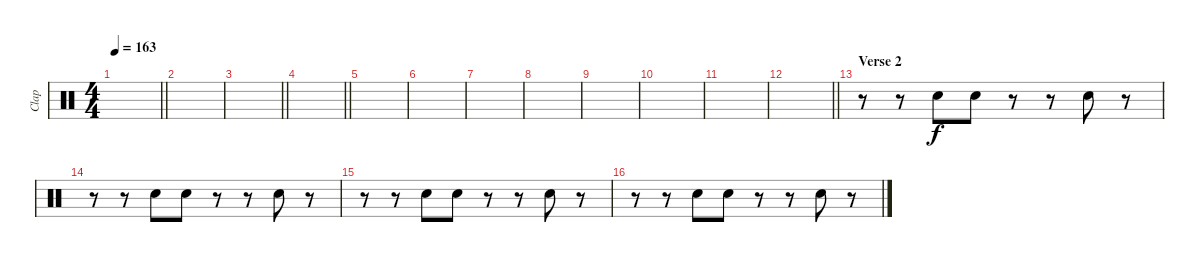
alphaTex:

\track ("Clap" "Clap") {instrument percussion}
\staff {score}
\articulation defaults
\ts (4 4)
\tempo 163
\clef neutral
\barLineRight lightlight
\ks c
|
|
\barLineRight lightlight
|
\barLineRight lightlight
|
\section ("" "")
|
|
|
|
|
|
|
\barLineRight lightlight
|
\section ("" "Verse 2")
r.8 r.8 "Hand Clap (hit)".8 "Hand Clap (hit)".8 r.8 r.8 "Hand Clap (hit)".8 r.8 |
r.8 r.8 "Hand Clap (hit)".8 "Hand Clap (hit)".8 r.8 r.8 "Hand Clap (hit)".8 r.8 |
r.8 r.8 "Hand Clap (hit)".8 "Hand Clap (hit)".8 r.8 r.8 "Hand Clap (hit)".8 r.8 |
r.8 r.8 "Hand Clap (hit)".8 "Hand Clap (hit)".8 r.8 r.8 "Hand Clap (hit)".8 r.8
